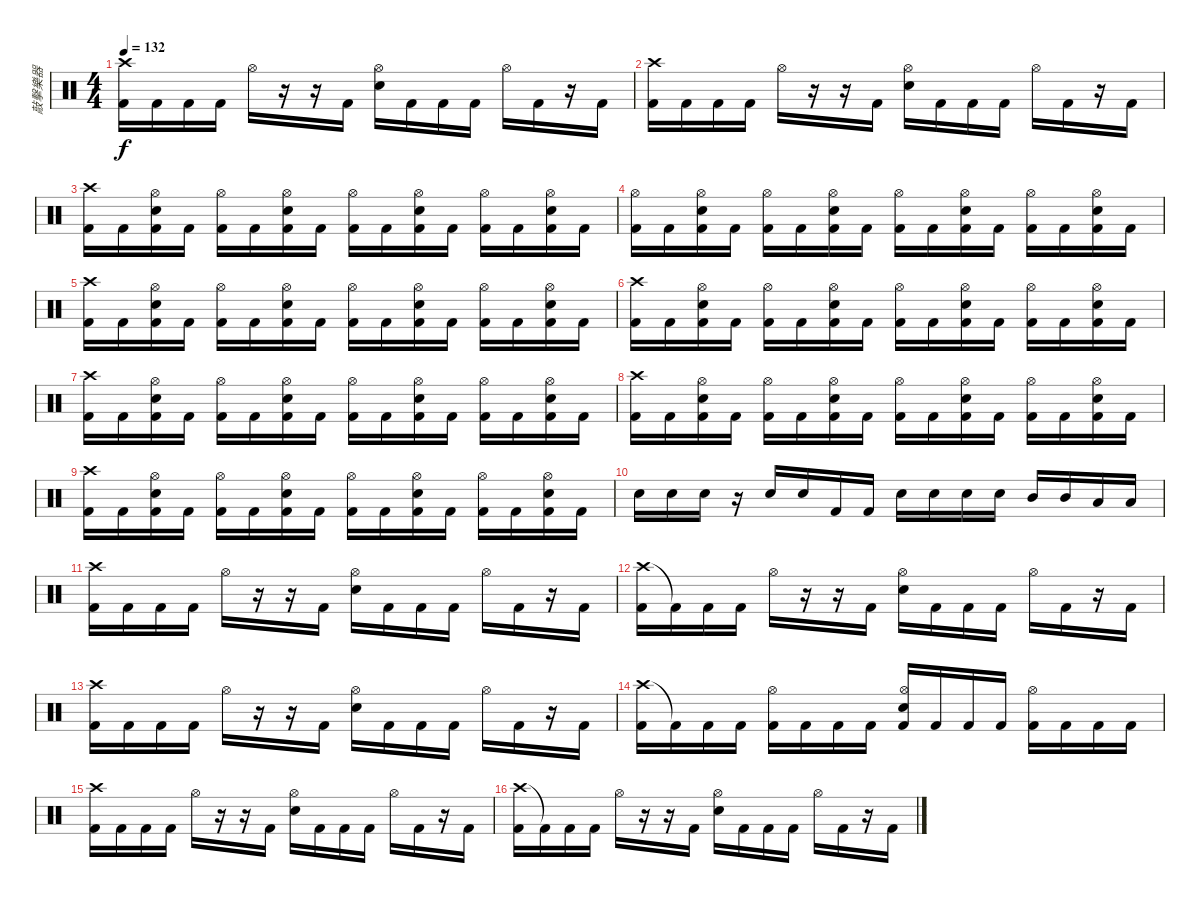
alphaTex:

\track ("敲擊樂器" "敲擊樂器") {instrument percussion}
\staff {score}
\articulation defaults
\ts (4 4)
\tempo 132
\clef neutral
\ks c
("Crash high (hit)" "Kick (hit) 2").16{dy f} "Kick (hit) 2".16 "Kick (hit) 2".16 "Kick (hit) 2".16 "Hi-Hat (open)".16 r.16 r.16 "Kick (hit) 2".16 ("Hi-Hat (open)" "Electric Snare (hit)").16 "Kick (hit) 2".16 "Kick (hit) 2".16 "Kick (hit) 2".16 "Hi-Hat (open)".16 "Kick (hit) 2".16 r.16 "Kick (hit) 2".16 |
("Crash high (hit)" "Kick (hit) 2").16 "Kick (hit) 2".16 "Kick (hit) 2".16 "Kick (hit) 2".16 "Hi-Hat (open)".16 r.16 r.16 "Kick (hit) 2".16 ("Hi-Hat (open)" "Electric Snare (hit)").16 "Kick (hit) 2".16 "Kick (hit) 2".16 "Kick (hit) 2".16 "Hi-Hat (open)".16 "Kick (hit) 2".16 r.16 "Kick (hit) 2".16 |
("Crash high (hit)" "Kick (hit) 2").16 "Kick (hit) 2".16 ("Hi-Hat (open)" "Electric Snare (hit)" "Kick (hit) 2").16 "Kick (hit) 2".16 ("Hi-Hat (open)" "Kick (hit) 2").16 "Kick (hit) 2".16 ("Hi-Hat (open)" "Electric Snare (hit)" "Kick (hit) 2").16 "Kick (hit) 2".16 ("Hi-Hat (open)" "Kick (hit) 2").16 "Kick (hit) 2".16 ("Hi-Hat (open)" "Electric Snare (hit)" "Kick (hit) 2").16 "Kick (hit) 2".16 ("Hi-Hat (open)" "Kick (hit) 2").16 "Kick (hit) 2".16 ("Hi-Hat (open)" "Electric Snare (hit)" "Kick (hit) 2").16 "Kick (hit) 2".16 |
("Hi-Hat (open)" "Kick (hit) 2").16 "Kick (hit) 2".16 ("Hi-Hat (open)" "Electric Snare (hit)" "Kick (hit) 2").16 "Kick (hit) 2".16 ("Hi-Hat (open)" "Kick (hit) 2").16 "Kick (hit) 2".16 ("Hi-Hat (open)" "Electric Snare (hit)" "Kick (hit) 2").16 "Kick (hit) 2".16 ("Hi-Hat (open)" "Kick (hit) 2").16 "Kick (hit) 2".16 ("Hi-Hat (open)" "Electric Snare (hit)" "Kick (hit) 2").16 "Kick (hit) 2".16 ("Hi-Hat (open)" "Kick (hit) 2").16 "Kick (hit) 2".16 ("Hi-Hat (open)" "Electric Snare (hit)" "Kick (hit) 2").16 "Kick (hit) 2".16 |
("Crash high (hit)" "Kick (hit) 2").16 "Kick (hit) 2".16 ("Hi-Hat (open)" "Electric Snare (hit)" "Kick (hit) 2").16 "Kick (hit) 2".16 ("Hi-Hat (open)" "Kick (hit) 2").16 "Kick (hit) 2".16 ("Hi-Hat (open)" "Electric Snare (hit)" "Kick (hit) 2").16 "Kick (hit) 2".16 ("Hi-Hat (open)" "Kick (hit) 2").16 "Kick (hit) 2".16 ("Hi-Hat (open)" "Electric Snare (hit)" "Kick (hit) 2").16 "Kick (hit) 2".16 ("Hi-Hat (open)" "Kick (hit) 2").16 "Kick (hit) 2".16 ("Hi-Hat (open)" "Electric Snare (hit)" "Kick (hit) 2").16 "Kick (hit) 2".16 |
("Crash high (hit)" "Kick (hit) 2").16 "Kick (hit) 2".16 ("Hi-Hat (open)" "Electric Snare (hit)" "Kick (hit) 2").16 "Kick (hit) 2".16 ("Hi-Hat (open)" "Kick (hit) 2").16 "Kick (hit) 2".16 ("Hi-Hat (open)" "Electric Snare (hit)" "Kick (hit) 2").16 "Kick (hit) 2".16 ("Hi-Hat (open)" "Kick (hit) 2").16 "Kick (hit) 2".16 ("Hi-Hat (open)" "Electric Snare (hit)" "Kick (hit) 2").16 "Kick (hit) 2".16 ("Hi-Hat (open)" "Kick (hit) 2").16 "Kick (hit) 2".16 ("Hi-Hat (open)" "Electric Snare (hit)" "Kick (hit) 2").16 "Kick (hit) 2".16 |
("Crash high (hit)" "Kick (hit) 2").16 "Kick (hit) 2".16 ("Hi-Hat (open)" "Electric Snare (hit)" "Kick (hit) 2").16 "Kick (hit) 2".16 ("Hi-Hat (open)" "Kick (hit) 2").16 "Kick (hit) 2".16 ("Hi-Hat (open)" "Electric Snare (hit)" "Kick (hit) 2").16 "Kick (hit) 2".16 ("Hi-Hat (open)" "Kick (hit) 2").16 "Kick (hit) 2".16 ("Hi-Hat (open)" "Electric Snare (hit)" "Kick (hit) 2").16 "Kick (hit) 2".16 ("Hi-Hat (open)" "Kick (hit) 2").16 "Kick (hit) 2".16 ("Hi-Hat (open)" "Electric Snare (hit)" "Kick (hit) 2").16 "Kick (hit) 2".16 |
("Crash high (hit)" "Kick (hit) 2").16 "Kick (hit) 2".16 ("Hi-Hat (open)" "Electric Snare (hit)" "Kick (hit) 2").16 "Kick (hit) 2".16 ("Hi-Hat (open)" "Kick (hit) 2").16 "Kick (hit) 2".16 ("Hi-Hat (open)" "Electric Snare (hit)" "Kick (hit) 2").16 "Kick (hit) 2".16 ("Hi-Hat (open)" "Kick (hit) 2").16 "Kick (hit) 2".16 ("Hi-Hat (open)" "Electric Snare (hit)" "Kick (hit) 2").16 "Kick (hit) 2".16 ("Hi-Hat (open)" "Kick (hit) 2").16 "Kick (hit) 2".16 ("Hi-Hat (open)" "Electric Snare (hit)" "Kick (hit) 2").16 "Kick (hit) 2".16 |
("Crash high (hit)" "Kick (hit) 2").16 "Kick (hit) 2".16 ("Hi-Hat (open)" "Electric Snare (hit)" "Kick (hit) 2").16 "Kick (hit) 2".16 ("Hi-Hat (open)" "Kick (hit) 2").16 "Kick (hit) 2".16 ("Hi-Hat (open)" "Electric Snare (hit)" "Kick (hit) 2").16 "Kick (hit) 2".16 ("Hi-Hat (open)" "Kick (hit) 2").16 "Kick (hit) 2".16 ("Hi-Hat (open)" "Electric Snare (hit)" "Kick (hit) 2").16 "Kick (hit) 2".16 ("Hi-Hat (open)" "Kick (hit) 2").16 "Kick (hit) 2".16 ("Hi-Hat (open)" "Electric Snare (hit)" "Kick (hit) 2").16 "Kick (hit) 2".16 |
"Electric Snare (hit)".16 "Electric Snare (hit)".16 "Electric Snare (hit)".16 r.16 "Electric Snare (hit)".16 "Electric Snare (hit)".16 "Kick (hit) 2".16 "Kick (hit) 2".16 "Electric Snare (hit)".16 "Electric Snare (hit)".16 "Electric Snare (hit)".16 "Electric Snare (hit)".16 "Mid Tom (hit)".16 "Mid Tom (hit)".16 "Low Tom (hit)".16 "Low Tom (hit)".16 |
("Crash high (hit)" "Kick (hit) 2").16 "Kick (hit) 2".16 "Kick (hit) 2".16 "Kick (hit) 2".16 "Hi-Hat (open)".16 r.16 r.16 "Kick (hit) 2".16 ("Hi-Hat (open)" "Electric Snare (hit)").16 "Kick (hit) 2".16 "Kick (hit) 2".16 "Kick (hit) 2".16 "Hi-Hat (open)".16 "Kick (hit) 2".16 r.16 "Kick (hit) 2".16 |
("Crash high (hit)" "Kick (hit) 2").16 "Kick (hit) 2"{t}.16 "Kick (hit) 2".16 "Kick (hit) 2".16 "Hi-Hat (open)".16 r.16 r.16 "Kick (hit) 2".16 ("Hi-Hat (open)" "Electric Snare (hit)").16 "Kick (hit) 2".16 "Kick (hit) 2".16 "Kick (hit) 2".16 "Hi-Hat (open)".16 "Kick (hit) 2".16 r.16 "Kick (hit) 2".16 |
("Crash high (hit)" "Kick (hit) 2").16 "Kick (hit) 2".16 "Kick (hit) 2".16 "Kick (hit) 2".16 "Hi-Hat (open)".16 r.16 r.16 "Kick (hit) 2".16 ("Hi-Hat (open)" "Electric Snare (hit)").16 "Kick (hit) 2".16 "Kick (hit) 2".16 "Kick (hit) 2".16 "Hi-Hat (open)".16 "Kick (hit) 2".16 r.16 "Kick (hit) 2".16 |
("Crash high (hit)" "Kick (hit) 2").16 "Kick (hit) 2"{t}.16 "Kick (hit) 2".16 "Kick (hit) 2".16 ("Hi-Hat (open)" "Kick (hit) 2").16 "Kick (hit) 2".16 "Kick (hit) 2".16 "Kick (hit) 2".16 ("Hi-Hat (open)" "Electric Snare (hit)" "Kick (hit) 2").16 "Kick (hit) 2".16 "Kick (hit) 2".16 "Kick (hit) 2".16 ("Hi-Hat (open)" "Kick (hit) 2").16 "Kick (hit) 2".16 "Kick (hit) 2".16 "Kick (hit) 2".16 |
("Crash high (hit)" "Kick (hit) 2").16 "Kick (hit) 2".16 "Kick (hit) 2".16 "Kick (hit) 2".16 "Hi-Hat (open)".16 r.16 r.16 "Kick (hit) 2".16 ("Hi-Hat (open)" "Electric Snare (hit)").16 "Kick (hit) 2".16 "Kick (hit) 2".16 "Kick (hit) 2".16 "Hi-Hat (open)".16 "Kick (hit) 2".16 r.16 "Kick (hit) 2".16 |
("Crash high (hit)" "Kick (hit) 2").16 "Kick (hit) 2"{t}.16 "Kick (hit) 2".16 "Kick (hit) 2".16 "Hi-Hat (open)".16 r.16 r.16 "Kick (hit) 2".16 ("Hi-Hat (open)" "Electric Snare (hit)").16 "Kick (hit) 2".16 "Kick (hit) 2".16 "Kick (hit) 2".16 "Hi-Hat (open)".16 "Kick (hit) 2".16 r.16 "Kick (hit) 2".16
